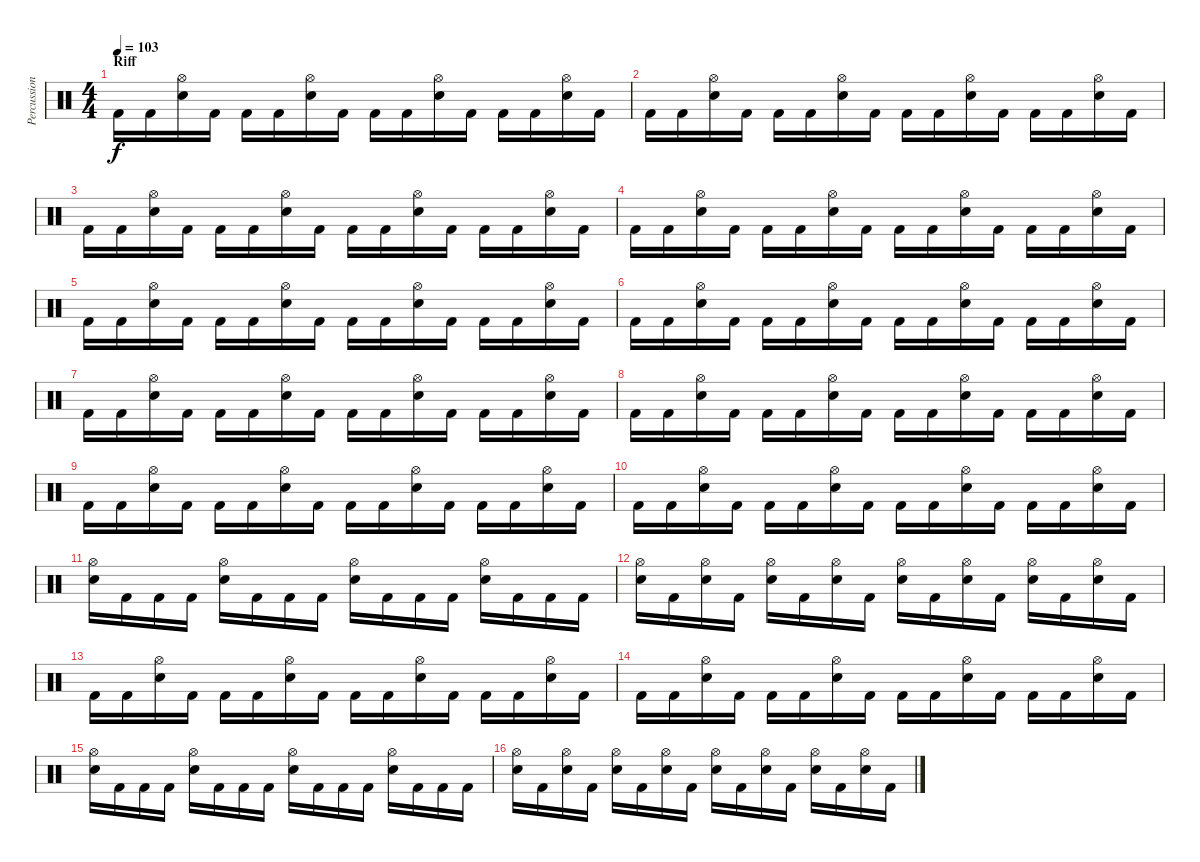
\track ("Percussion" "Percussion") {instrument percussion}
\staff {score}
\articulation defaults
\ts (4 4)
\section ("" "Riff")
\tempo 103
\clef neutral
\ks aminor "Kick (hit) 2".16{dy f} "Kick (hit) 2".16
("Hi-Hat (open)" "Electric Snare (hit)").16 "Kick (hit) 2".16 "Kick (hit) 2".16 "Kick (hit) 2".16 ("Hi-Hat (open)" "Electric Snare (hit)").16 "Kick (hit) 2".16 "Kick (hit) 2".16 "Kick (hit) 2".16 ("Hi-Hat (open)" "Electric Snare (hit)").16 "Kick (hit) 2".16 "Kick (hit) 2".16 "Kick (hit) 2".16 ("Hi-Hat (open)" "Electric Snare (hit)").16 "Kick (hit) 2".16 |
"Kick (hit) 2".16 "Kick (hit) 2".16 ("Hi-Hat (open)" "Electric Snare (hit)").16 "Kick (hit) 2".16 "Kick (hit) 2".16 "Kick (hit) 2".16 ("Hi-Hat (open)" "Electric Snare (hit)").16 "Kick (hit) 2".16 "Kick (hit) 2".16 "Kick (hit) 2".16 ("Hi-Hat (open)" "Electric Snare (hit)").16 "Kick (hit) 2".16 "Kick (hit) 2".16 "Kick (hit) 2".16 ("Hi-Hat (open)" "Electric Snare (hit)").16 "Kick (hit) 2".16 |
"Kick (hit) 2".16 "Kick (hit) 2".16 ("Hi-Hat (open)" "Electric Snare (hit)").16 "Kick (hit) 2".16 "Kick (hit) 2".16 "Kick (hit) 2".16 ("Hi-Hat (open)" "Electric Snare (hit)").16 "Kick (hit) 2".16 "Kick (hit) 2".16 "Kick (hit) 2".16 ("Hi-Hat (open)" "Electric Snare (hit)").16 "Kick (hit) 2".16 "Kick (hit) 2".16 "Kick (hit) 2".16 ("Hi-Hat (open)" "Electric Snare (hit)").16 "Kick (hit) 2".16 |
"Kick (hit) 2".16 "Kick (hit) 2".16 ("Hi-Hat (open)" "Electric Snare (hit)").16 "Kick (hit) 2".16 "Kick (hit) 2".16 "Kick (hit) 2".16 ("Hi-Hat (open)" "Electric Snare (hit)").16 "Kick (hit) 2".16 "Kick (hit) 2".16 "Kick (hit) 2".16 ("Hi-Hat (open)" "Electric Snare (hit)").16 "Kick (hit) 2".16 "Kick (hit) 2".16 "Kick (hit) 2".16 ("Hi-Hat (open)" "Electric Snare (hit)").16 "Kick (hit) 2".16 |
"Kick (hit) 2".16 "Kick (hit) 2".16 ("Hi-Hat (open)" "Electric Snare (hit)").16 "Kick (hit) 2".16 "Kick (hit) 2".16 "Kick (hit) 2".16 ("Hi-Hat (open)" "Electric Snare (hit)").16 "Kick (hit) 2".16 "Kick (hit) 2".16 "Kick (hit) 2".16 ("Hi-Hat (open)" "Electric Snare (hit)").16 "Kick (hit) 2".16 "Kick (hit) 2".16 "Kick (hit) 2".16 ("Hi-Hat (open)" "Electric Snare (hit)").16 "Kick (hit) 2".16 |
"Kick (hit) 2".16 "Kick (hit) 2".16 ("Hi-Hat (open)" "Electric Snare (hit)").16 "Kick (hit) 2".16 "Kick (hit) 2".16 "Kick (hit) 2".16 ("Hi-Hat (open)" "Electric Snare (hit)").16 "Kick (hit) 2".16 "Kick (hit) 2".16 "Kick (hit) 2".16 ("Hi-Hat (open)" "Electric Snare (hit)").16 "Kick (hit) 2".16 "Kick (hit) 2".16 "Kick (hit) 2".16 ("Hi-Hat (open)" "Electric Snare (hit)").16 "Kick (hit) 2".16 |
"Kick (hit) 2".16 "Kick (hit) 2".16 ("Hi-Hat (open)" "Electric Snare (hit)").16 "Kick (hit) 2".16 "Kick (hit) 2".16 "Kick (hit) 2".16 ("Hi-Hat (open)" "Electric Snare (hit)").16 "Kick (hit) 2".16 "Kick (hit) 2".16 "Kick (hit) 2".16 ("Hi-Hat (open)" "Electric Snare (hit)").16 "Kick (hit) 2".16 "Kick (hit) 2".16 "Kick (hit) 2".16 ("Hi-Hat (open)" "Electric Snare (hit)").16 "Kick (hit) 2".16 |
"Kick (hit) 2".16 "Kick (hit) 2".16 ("Hi-Hat (open)" "Electric Snare (hit)").16 "Kick (hit) 2".16 "Kick (hit) 2".16 "Kick (hit) 2".16 ("Hi-Hat (open)" "Electric Snare (hit)").16 "Kick (hit) 2".16 "Kick (hit) 2".16 "Kick (hit) 2".16 ("Hi-Hat (open)" "Electric Snare (hit)").16 "Kick (hit) 2".16 "Kick (hit) 2".16 "Kick (hit) 2".16 ("Hi-Hat (open)" "Electric Snare (hit)").16 "Kick (hit) 2".16 |
"Kick (hit) 2".16 "Kick (hit) 2".16 ("Hi-Hat (open)" "Electric Snare (hit)").16 "Kick (hit) 2".16 "Kick (hit) 2".16 "Kick (hit) 2".16 ("Hi-Hat (open)" "Electric Snare (hit)").16 "Kick (hit) 2".16 "Kick (hit) 2".16 "Kick (hit) 2".16 ("Hi-Hat (open)" "Electric Snare (hit)").16 "Kick (hit) 2".16 "Kick (hit) 2".16 "Kick (hit) 2".16 ("Hi-Hat (open)" "Electric Snare (hit)").16 "Kick (hit) 2".16 |
"Kick (hit) 2".16 "Kick (hit) 2".16 ("Hi-Hat (open)" "Electric Snare (hit)").16 "Kick (hit) 2".16 "Kick (hit) 2".16 "Kick (hit) 2".16 ("Hi-Hat (open)" "Electric Snare (hit)").16 "Kick (hit) 2".16 "Kick (hit) 2".16 "Kick (hit) 2".16 ("Hi-Hat (open)" "Electric Snare (hit)").16 "Kick (hit) 2".16 "Kick (hit) 2".16 "Kick (hit) 2".16 ("Hi-Hat (open)" "Electric Snare (hit)").16 "Kick (hit) 2".16 |
("Hi-Hat (open)" "Electric Snare (hit)").16 "Kick (hit) 2".16 "Kick (hit) 2".16 "Kick (hit) 2".16 ("Hi-Hat (open)" "Electric Snare (hit)").16 "Kick (hit) 2".16 "Kick (hit) 2".16 "Kick (hit) 2".16 ("Hi-Hat (open)" "Electric Snare (hit)").16 "Kick (hit) 2".16 "Kick (hit) 2".16 "Kick (hit) 2".16 ("Hi-Hat (open)" "Electric Snare (hit)").16 "Kick (hit) 2".16 "Kick (hit) 2".16 "Kick (hit) 2".16 |
("Hi-Hat (open)" "Electric Snare (hit)").16 "Kick (hit) 2".16 ("Hi-Hat (open)" "Electric Snare (hit)").16 "Kick (hit) 2".16 ("Hi-Hat (open)" "Electric Snare (hit)").16 "Kick (hit) 2".16 ("Hi-Hat (open)" "Electric Snare (hit)").16 "Kick (hit) 2".16 ("Hi-Hat (open)" "Electric Snare (hit)").16 "Kick (hit) 2".16 ("Hi-Hat (open)" "Electric Snare (hit)").16 "Kick (hit) 2".16 ("Hi-Hat (open)" "Electric Snare (hit)").16 "Kick (hit) 2".16 ("Hi-Hat (open)" "Electric Snare (hit)").16 "Kick (hit) 2".16 |
"Kick (hit) 2".16 "Kick (hit) 2".16 ("Hi-Hat (open)" "Electric Snare (hit)").16 "Kick (hit) 2".16 "Kick (hit) 2".16 "Kick (hit) 2".16 ("Hi-Hat (open)" "Electric Snare (hit)").16 "Kick (hit) 2".16 "Kick (hit) 2".16 "Kick (hit) 2".16 ("Hi-Hat (open)" "Electric Snare (hit)").16 "Kick (hit) 2".16 "Kick (hit) 2".16 "Kick (hit) 2".16 ("Hi-Hat (open)" "Electric Snare (hit)").16 "Kick (hit) 2".16 |
"Kick (hit) 2".16 "Kick (hit) 2".16 ("Hi-Hat (open)" "Electric Snare (hit)").16 "Kick (hit) 2".16 "Kick (hit) 2".16 "Kick (hit) 2".16 ("Hi-Hat (open)" "Electric Snare (hit)").16 "Kick (hit) 2".16 "Kick (hit) 2".16 "Kick (hit) 2".16 ("Hi-Hat (open)" "Electric Snare (hit)").16 "Kick (hit) 2".16 "Kick (hit) 2".16 "Kick (hit) 2".16 ("Hi-Hat (open)" "Electric Snare (hit)").16 "Kick (hit) 2".16 |
("Hi-Hat (open)" "Electric Snare (hit)").16 "Kick (hit) 2".16 "Kick (hit) 2".16 "Kick (hit) 2".16 ("Hi-Hat (open)" "Electric Snare (hit)").16 "Kick (hit) 2".16 "Kick (hit) 2".16 "Kick (hit) 2".16 ("Hi-Hat (open)" "Electric Snare (hit)").16 "Kick (hit) 2".16 "Kick (hit) 2".16 "Kick (hit) 2".16 ("Hi-Hat (open)" "Electric Snare (hit)").16 "Kick (hit) 2".16 "Kick (hit) 2".16 "Kick (hit) 2".16 |
("Hi-Hat (open)" "Electric Snare (hit)").16 "Kick (hit) 2".16 ("Hi-Hat (open)" "Electric Snare (hit)").16 "Kick (hit) 2".16 ("Hi-Hat (open)" "Electric Snare (hit)").16 "Kick (hit) 2".16 ("Hi-Hat (open)" "Electric Snare (hit)").16 "Kick (hit) 2".16 ("Hi-Hat (open)" "Electric Snare (hit)").16 "Kick (hit) 2".16 ("Hi-Hat (open)" "Electric Snare (hit)").16 "Kick (hit) 2".16 ("Hi-Hat (open)" "Electric Snare (hit)").16 "Kick (hit) 2".16 ("Hi-Hat (open)" "Electric Snare (hit)").16 "Kick (hit) 2".16
